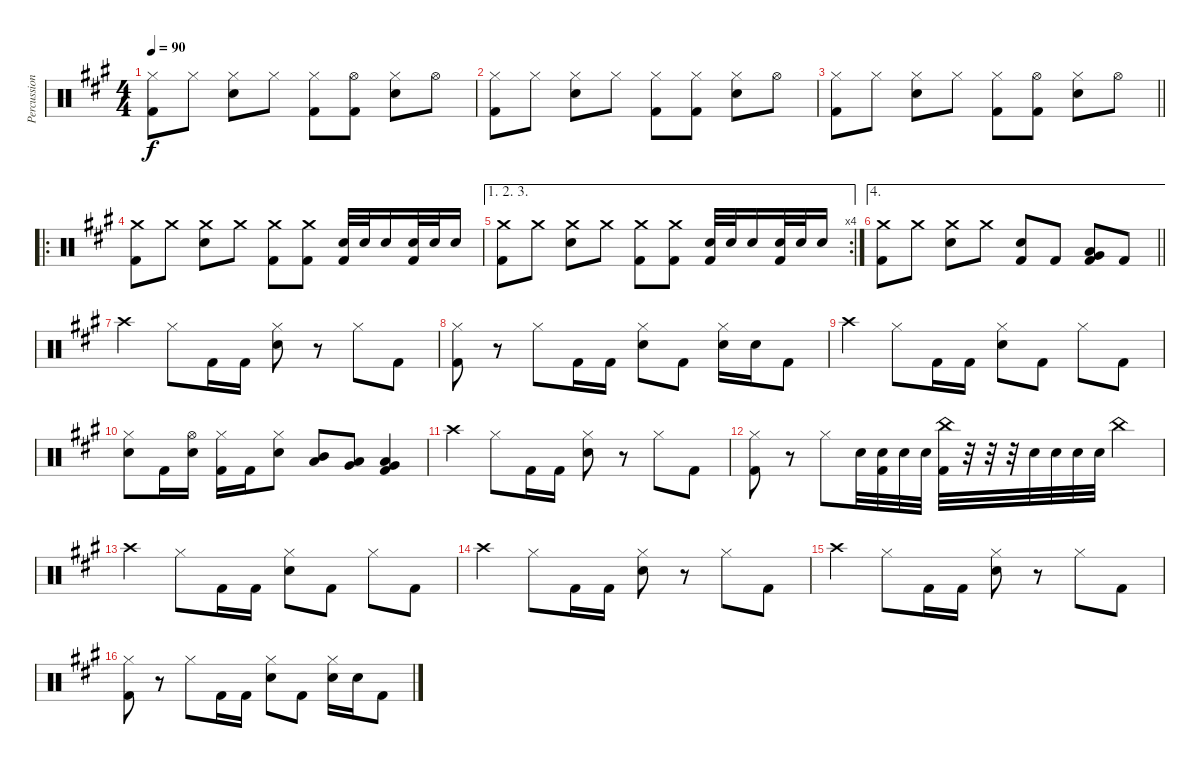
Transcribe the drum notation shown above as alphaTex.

\track ("Percussion" "Percussion") {instrument percussion}
\staff {score}
\articulation defaults
\ts (4 4)
\tempo 90
\clef neutral
\ks a
("Hi-Hat (closed)" "Kick (hit) 2").8{dy f} "Hi-Hat (closed)".8 ("Hi-Hat (closed)" "Electric Snare (hit)").8 "Hi-Hat (closed)".8 ("Hi-Hat (closed)" "Kick (hit) 2").8 ("Hi-Hat (open)" "Kick (hit) 2").8 ("Hi-Hat (closed)" "Electric Snare (hit)").8 "Hi-Hat (open)".8 |
("Hi-Hat (closed)" "Kick (hit) 2").8 "Hi-Hat (closed)".8 ("Hi-Hat (closed)" "Electric Snare (hit)").8 "Hi-Hat (closed)".8 ("Hi-Hat (closed)" "Kick (hit) 2").8 ("Hi-Hat (closed)" "Kick (hit) 2").8 ("Hi-Hat (closed)" "Electric Snare (hit)").8 "Hi-Hat (open)".8 |
\barLineRight lightlight
("Hi-Hat (closed)" "Kick (hit) 2").8 "Hi-Hat (closed)".8 ("Hi-Hat (closed)" "Electric Snare (hit)").8 "Hi-Hat (closed)".8 ("Hi-Hat (closed)" "Kick (hit) 2").8 ("Hi-Hat (open)" "Kick (hit) 2").8 ("Hi-Hat (closed)" "Electric Snare (hit)").8 "Hi-Hat (open)".8 |
\ro
("Crash medium (hit)" "Kick (hit) 2").8 "Crash medium (hit)".8 ("Crash medium (hit)" "Electric Snare (hit)").8 "Crash medium (hit)".8 ("Crash medium (hit)" "Kick (hit) 2").8 ("Crash medium (hit)" "Kick (hit) 2").8 ("Electric Snare (hit)" "Kick (hit) 2").32 "Electric Snare (hit)".32 "Electric Snare (hit)".16 ("Electric Snare (hit)" "Kick (hit) 2").32 "Electric Snare (hit)".32 "Electric Snare (hit)".16 |
\ae (1 2 3)
\rc 4
("Crash medium (hit)" "Kick (hit) 2").8 "Crash medium (hit)".8 ("Crash medium (hit)" "Electric Snare (hit)").8 "Crash medium (hit)".8 ("Crash medium (hit)" "Kick (hit) 2").8 ("Crash medium (hit)" "Kick (hit) 2").8 ("Electric Snare (hit)" "Kick (hit) 2").32 "Electric Snare (hit)".32 "Electric Snare (hit)".16 ("Electric Snare (hit)" "Kick (hit) 2").32 "Electric Snare (hit)".32 "Electric Snare (hit)".16 |
\ae 4
\barLineRight lightlight
("Crash medium (hit)" "Kick (hit) 2").8 "Crash medium (hit)".8 ("Crash medium (hit)" "Electric Snare (hit)").8 "Crash medium (hit)".8 ("Electric Snare (hit)" "Kick (hit) 2").8 "Kick (hit) 2".8 ("Low Tom (hit)" "Very Low Tom (hit)" "Kick (hit) 2").8 "Kick (hit) 2".8 |
"Crash high (hit)".4 "Hi-Hat (closed)".8 "Kick (hit) 2".16 "Kick (hit) 2".16 ("Hi-Hat (closed)" "Electric Snare (hit)").8 r.8 "Hi-Hat (closed)".8 "Kick (hit) 2".8 |
("Hi-Hat (closed)" "Kick (hit) 2").8 r.8 "Hi-Hat (closed)".8 "Kick (hit) 2".16 "Kick (hit) 2".16 ("Hi-Hat (closed)" "Electric Snare (hit)").8 "Kick (hit) 2".8 ("Hi-Hat (closed)" "Electric Snare (hit)").16 "Electric Snare (hit)".16 "Kick (hit) 2".8 |
"Crash high (hit)".4 "Hi-Hat (closed)".8 "Kick (hit) 2".16 "Kick (hit) 2".16 ("Hi-Hat (closed)" "Electric Snare (hit)").8 "Kick (hit) 2".8 "Hi-Hat (closed)".8 "Kick (hit) 2".8 |
("Hi-Hat (closed)" "Electric Snare (hit)").8 "Kick (hit) 2".16 ("Hi-Hat (open)" "Electric Snare (hit)").16 ("Hi-Hat (closed)" "Kick (hit) 2").16 "Kick (hit) 2".16 ("Hi-Hat (closed)" "Electric Snare (hit)").8 ("Mid Tom (hit)" "Low Tom (hit)").8 ("Low Tom (hit)" "Very Low Tom (hit)").8 ("Very Low Tom (hit)" "Low Floor Tom (hit)" "Kick (hit) 2").4 |
"Crash high (hit)".4 "Hi-Hat (closed)".8 "Kick (hit) 2".16 "Kick (hit) 2".16 ("Hi-Hat (closed)" "Electric Snare (hit)").8 r.8 "Hi-Hat (closed)".8 "Kick (hit) 2".8 |
("Hi-Hat (closed)" "Kick (hit) 2").8 r.8 "Hi-Hat (closed)".8 "Electric Snare (hit)".32 ("Electric Snare (hit)" "Kick (hit) 2").32 "Electric Snare (hit)".32 "Electric Snare (hit)".32 ("China (hit)" "Kick (hit) 2").32 r.32 r.32 r.32 "Electric Snare (hit)".32 "Electric Snare (hit)".32 "Electric Snare (hit)".32 "Electric Snare (hit)".32 "China (hit)".4 |
"Crash high (hit)".4 "Hi-Hat (closed)".8 "Kick (hit) 2".16 "Kick (hit) 2".16 ("Hi-Hat (closed)" "Electric Snare (hit)").8 "Kick (hit) 2".8 "Hi-Hat (closed)".8 "Kick (hit) 2".8 |
"Crash high (hit)".4 "Hi-Hat (closed)".8 "Kick (hit) 2".16 "Kick (hit) 2".16 ("Hi-Hat (closed)" "Electric Snare (hit)").8 r.8 "Hi-Hat (closed)".8 "Kick (hit) 2".8 |
"Crash high (hit)".4 "Hi-Hat (closed)".8 "Kick (hit) 2".16 "Kick (hit) 2".16 ("Hi-Hat (closed)" "Electric Snare (hit)").8 r.8 "Hi-Hat (closed)".8 "Kick (hit) 2".8 |
("Hi-Hat (closed)" "Kick (hit) 2").8 r.8 "Hi-Hat (closed)".8 "Kick (hit) 2".16 "Kick (hit) 2".16 ("Hi-Hat (closed)" "Electric Snare (hit)").8 "Kick (hit) 2".8 ("Hi-Hat (closed)" "Electric Snare (hit)").16 "Electric Snare (hit)".16 "Kick (hit) 2".8
